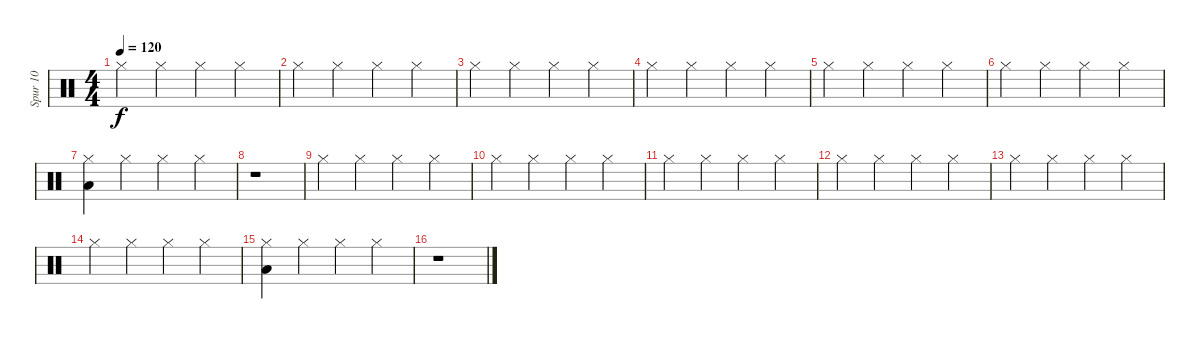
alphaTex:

\track ("Spur 10" "Spur 10") {instrument percussion}
\staff {score}
\articulation defaults
\ts (4 4)
\tempo 120
\clef neutral
\ks c "Hi-Hat (closed)".4{dy f} "Hi-Hat (closed)".4 "Hi-Hat (closed)".4 "Hi-Hat (closed)".4
|
"Hi-Hat (closed)".4 "Hi-Hat (closed)".4 "Hi-Hat (closed)".4 "Hi-Hat (closed)".4 |
"Hi-Hat (closed)".4 "Hi-Hat (closed)".4 "Hi-Hat (closed)".4 "Hi-Hat (closed)".4 |
"Hi-Hat (closed)".4 "Hi-Hat (closed)".4 "Hi-Hat (closed)".4 "Hi-Hat (closed)".4 |
"Hi-Hat (closed)".4 "Hi-Hat (closed)".4 "Hi-Hat (closed)".4 "Hi-Hat (closed)".4 |
"Hi-Hat (closed)".4 "Hi-Hat (closed)".4 "Hi-Hat (closed)".4 "Hi-Hat (closed)".4 |
("Hi-Hat (closed)" "Low Floor Tom (hit)").4 "Hi-Hat (closed)".4 "Hi-Hat (closed)".4 "Hi-Hat (closed)".4 |
r.1 |
"Hi-Hat (closed)".4 "Hi-Hat (closed)".4 "Hi-Hat (closed)".4 "Hi-Hat (closed)".4 |
"Hi-Hat (closed)".4 "Hi-Hat (closed)".4 "Hi-Hat (closed)".4 "Hi-Hat (closed)".4 |
"Hi-Hat (closed)".4 "Hi-Hat (closed)".4 "Hi-Hat (closed)".4 "Hi-Hat (closed)".4 |
"Hi-Hat (closed)".4 "Hi-Hat (closed)".4 "Hi-Hat (closed)".4 "Hi-Hat (closed)".4 |
"Hi-Hat (closed)".4 "Hi-Hat (closed)".4 "Hi-Hat (closed)".4 "Hi-Hat (closed)".4 |
"Hi-Hat (closed)".4 "Hi-Hat (closed)".4 "Hi-Hat (closed)".4 "Hi-Hat (closed)".4 |
("Hi-Hat (closed)" "Low Floor Tom (hit)").4 "Hi-Hat (closed)".4 "Hi-Hat (closed)".4 "Hi-Hat (closed)".4 |
r.1
